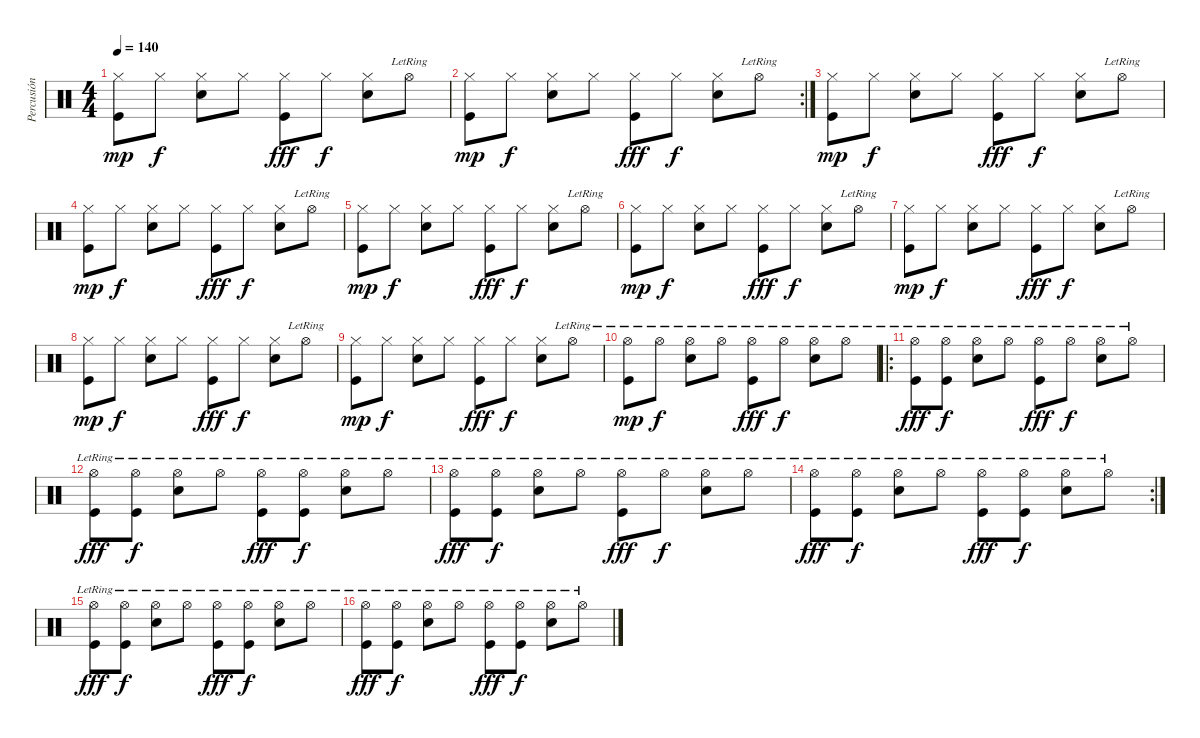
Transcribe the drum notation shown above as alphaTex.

\track ("Percusión" "Percusión") {instrument percussion}
\staff {score}
\articulation defaults
\ts (4 4)
\tempo 140
\clef neutral
\ks c
("Kick (hit)" "Hi-Hat (closed)").8{dy mp} "Hi-Hat (closed)".8{dy f} ("Snare (hit) 2" "Hi-Hat (closed)").8 "Hi-Hat (closed)".8 ("Kick (hit)" "Hi-Hat (closed)").8{dy fff} "Hi-Hat (closed)".8{dy f} ("Snare (hit) 2" "Hi-Hat (closed)").8 "Hi-Hat (open)"{lr}.8 |
\rc 2
("Kick (hit)" "Hi-Hat (closed)").8{dy mp} "Hi-Hat (closed)".8{dy f} ("Snare (hit) 2" "Hi-Hat (closed)").8 "Hi-Hat (closed)".8 ("Kick (hit)" "Hi-Hat (closed)").8{dy fff} "Hi-Hat (closed)".8{dy f} ("Snare (hit) 2" "Hi-Hat (closed)").8 "Hi-Hat (open)"{lr}.8 |
("Kick (hit)" "Hi-Hat (closed)").8{dy mp} "Hi-Hat (closed)".8{dy f} ("Snare (hit) 2" "Hi-Hat (closed)").8 "Hi-Hat (closed)".8 ("Kick (hit)" "Hi-Hat (closed)").8{dy fff} "Hi-Hat (closed)".8{dy f} ("Snare (hit) 2" "Hi-Hat (closed)").8 "Hi-Hat (open)"{lr}.8 |
("Kick (hit)" "Hi-Hat (closed)").8{dy mp} "Hi-Hat (closed)".8{dy f} ("Snare (hit) 2" "Hi-Hat (closed)").8 "Hi-Hat (closed)".8 ("Kick (hit)" "Hi-Hat (closed)").8{dy fff} "Hi-Hat (closed)".8{dy f} ("Snare (hit) 2" "Hi-Hat (closed)").8 "Hi-Hat (open)"{lr}.8 |
("Kick (hit)" "Hi-Hat (closed)").8{dy mp} "Hi-Hat (closed)".8{dy f} ("Snare (hit) 2" "Hi-Hat (closed)").8 "Hi-Hat (closed)".8 ("Kick (hit)" "Hi-Hat (closed)").8{dy fff} "Hi-Hat (closed)".8{dy f} ("Snare (hit) 2" "Hi-Hat (closed)").8 "Hi-Hat (open)"{lr}.8 |
("Kick (hit)" "Hi-Hat (closed)").8{dy mp} "Hi-Hat (closed)".8{dy f} ("Snare (hit) 2" "Hi-Hat (closed)").8 "Hi-Hat (closed)".8 ("Kick (hit)" "Hi-Hat (closed)").8{dy fff} "Hi-Hat (closed)".8{dy f} ("Snare (hit) 2" "Hi-Hat (closed)").8 "Hi-Hat (open)"{lr}.8 |
("Kick (hit)" "Hi-Hat (closed)").8{dy mp} "Hi-Hat (closed)".8{dy f} ("Snare (hit) 2" "Hi-Hat (closed)").8 "Hi-Hat (closed)".8 ("Kick (hit)" "Hi-Hat (closed)").8{dy fff} "Hi-Hat (closed)".8{dy f} ("Snare (hit) 2" "Hi-Hat (closed)").8 "Hi-Hat (open)"{lr}.8 |
("Kick (hit)" "Hi-Hat (closed)").8{dy mp} "Hi-Hat (closed)".8{dy f} ("Snare (hit) 2" "Hi-Hat (closed)").8 "Hi-Hat (closed)".8 ("Kick (hit)" "Hi-Hat (closed)").8{dy fff} "Hi-Hat (closed)".8{dy f} ("Snare (hit) 2" "Hi-Hat (closed)").8 "Hi-Hat (open)"{lr}.8 |
("Kick (hit)" "Hi-Hat (closed)").8{dy mp} "Hi-Hat (closed)".8{dy f} ("Snare (hit) 2" "Hi-Hat (closed)").8 "Hi-Hat (closed)".8 ("Kick (hit)" "Hi-Hat (closed)").8{dy fff} "Hi-Hat (closed)".8{dy f} ("Snare (hit) 2" "Hi-Hat (closed)").8 "Hi-Hat (open)"{lr}.8 |
("Kick (hit)" "Hi-Hat (open)"{lr}).8{dy mp} "Hi-Hat (open)"{lr}.8{dy f} ("Snare (hit) 2" "Hi-Hat (open)"{lr}).8 "Hi-Hat (open)"{lr}.8 ("Kick (hit)" "Hi-Hat (open)"{lr}).8{dy fff} "Hi-Hat (open)"{lr}.8{dy f} ("Snare (hit) 2" "Hi-Hat (open)"{lr}).8 "Hi-Hat (open)"{lr}.8 |
\ro
("Kick (hit)" "Hi-Hat (open)"{lr}).8{dy fff} ("Kick (hit)" "Hi-Hat (open)"{lr}).8{dy f} ("Snare (hit) 2" "Hi-Hat (open)"{lr}).8 "Hi-Hat (open)"{lr}.8 ("Kick (hit)" "Hi-Hat (open)"{lr}).8{dy fff} "Hi-Hat (open)"{lr}.8{dy f} ("Snare (hit) 2" "Hi-Hat (open)"{lr}).8 "Hi-Hat (open)"{lr}.8 |
("Kick (hit)" "Hi-Hat (open)"{lr}).8{dy fff} ("Kick (hit)" "Hi-Hat (open)"{lr}).8{dy f} ("Snare (hit) 2" "Hi-Hat (open)"{lr}).8 "Hi-Hat (open)"{lr}.8 ("Kick (hit)" "Hi-Hat (open)"{lr}).8{dy fff} ("Kick (hit)" "Hi-Hat (open)"{lr}).8{dy f} ("Snare (hit) 2" "Hi-Hat (open)"{lr}).8 "Hi-Hat (open)"{lr}.8 |
("Kick (hit)" "Hi-Hat (open)"{lr}).8{dy fff} ("Kick (hit)" "Hi-Hat (open)"{lr}).8{dy f} ("Snare (hit) 2" "Hi-Hat (open)"{lr}).8 "Hi-Hat (open)"{lr}.8 ("Kick (hit)" "Hi-Hat (open)"{lr}).8{dy fff} "Hi-Hat (open)"{lr}.8{dy f} ("Snare (hit) 2" "Hi-Hat (open)"{lr}).8 "Hi-Hat (open)"{lr}.8 |
\rc 2
("Kick (hit)" "Hi-Hat (open)"{lr}).8{dy fff} ("Kick (hit)" "Hi-Hat (open)"{lr}).8{dy f} ("Snare (hit) 2" "Hi-Hat (open)"{lr}).8 "Hi-Hat (open)"{lr}.8 ("Kick (hit)" "Hi-Hat (open)"{lr}).8{dy fff} ("Kick (hit)" "Hi-Hat (open)"{lr}).8{dy f} ("Snare (hit) 2" "Hi-Hat (open)"{lr}).8 "Hi-Hat (open)"{lr}.8 |
("Kick (hit)" "Hi-Hat (open)"{lr}).8{dy fff} ("Kick (hit)" "Hi-Hat (open)"{lr}).8{dy f} ("Snare (hit) 2" "Hi-Hat (open)"{lr}).8 "Hi-Hat (open)"{lr}.8 ("Kick (hit)" "Hi-Hat (open)"{lr}).8{dy fff} ("Kick (hit)" "Hi-Hat (open)"{lr}).8{dy f} ("Snare (hit) 2" "Hi-Hat (open)"{lr}).8 "Hi-Hat (open)"{lr}.8 |
("Kick (hit)" "Hi-Hat (open)"{lr}).8{dy fff} ("Kick (hit)" "Hi-Hat (open)"{lr}).8{dy f} ("Snare (hit) 2" "Hi-Hat (open)"{lr}).8 "Hi-Hat (open)"{lr}.8 ("Kick (hit)" "Hi-Hat (open)"{lr}).8{dy fff} ("Kick (hit)" "Hi-Hat (open)"{lr}).8{dy f} ("Snare (hit) 2" "Hi-Hat (open)"{lr}).8 "Hi-Hat (open)"{lr}.8
